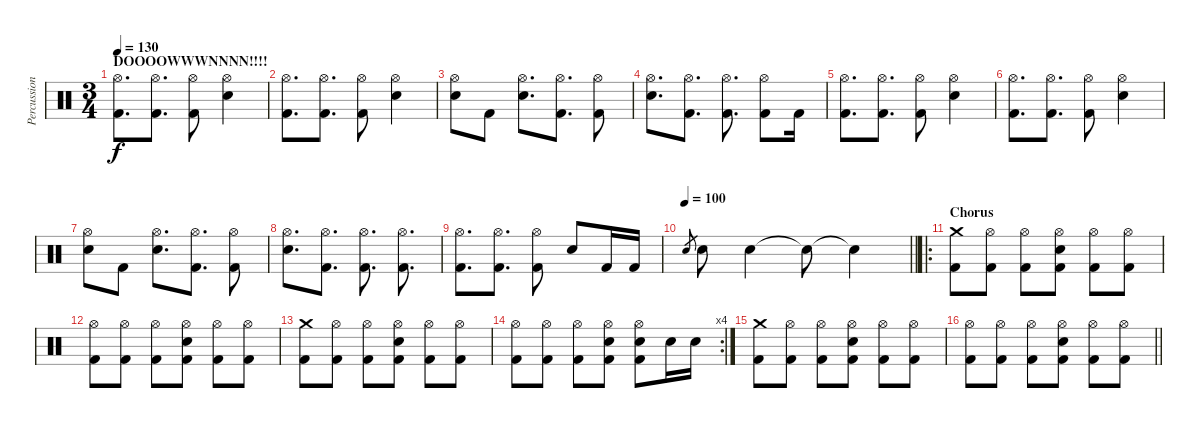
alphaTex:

\track ("Percussion" "Percussion") {instrument percussion}
\staff {score}
\articulation defaults
\ts (3 4)
\section ("" "DOOOOWWWNNNN!!!!")
\tempo 130
\clef neutral
\ks c
("Hi-Hat (open)" "Kick (hit) 2").8{d dy f} ("Hi-Hat (open)" "Kick (hit) 2").8{d} ("Hi-Hat (open)" "Kick (hit) 2").8 ("Hi-Hat (open)" "Snare (hit) 2").4 |
("Hi-Hat (open)" "Kick (hit) 2").8{d} ("Hi-Hat (open)" "Kick (hit) 2").8{d} ("Hi-Hat (open)" "Kick (hit) 2").8 ("Hi-Hat (open)" "Snare (hit) 2").4 |
("Hi-Hat (open)" "Snare (hit) 2").8 "Kick (hit) 2".8 ("Hi-Hat (open)" "Snare (hit) 2").8{d} ("Hi-Hat (open)" "Kick (hit) 2").8{d} ("Hi-Hat (open)" "Kick (hit) 2").8 |
("Hi-Hat (open)" "Snare (hit) 2").8{d} ("Hi-Hat (open)" "Kick (hit) 2").8{d} ("Hi-Hat (open)" "Kick (hit) 2").8{d} ("Hi-Hat (open)" "Kick (hit) 2").8 "Kick (hit) 2".16 |
("Hi-Hat (open)" "Kick (hit) 2").8{d} ("Hi-Hat (open)" "Kick (hit) 2").8{d} ("Hi-Hat (open)" "Kick (hit) 2").8 ("Hi-Hat (open)" "Snare (hit) 2").4 |
("Hi-Hat (open)" "Kick (hit) 2").8{d} ("Hi-Hat (open)" "Kick (hit) 2").8{d} ("Hi-Hat (open)" "Kick (hit) 2").8 ("Hi-Hat (open)" "Snare (hit) 2").4 |
("Hi-Hat (open)" "Snare (hit) 2").8 "Kick (hit) 2".8 ("Hi-Hat (open)" "Snare (hit) 2").8{d} ("Hi-Hat (open)" "Kick (hit) 2").8{d} ("Hi-Hat (open)" "Kick (hit) 2").8 |
("Hi-Hat (open)" "Snare (hit) 2").8{d} ("Hi-Hat (open)" "Kick (hit) 2").8{d} ("Hi-Hat (open)" "Kick (hit) 2").8{d} ("Hi-Hat (open)" "Kick (hit) 2").8{d} |
("Hi-Hat (open)" "Kick (hit) 2").8{d} ("Hi-Hat (open)" "Kick (hit) 2").8{d} ("Hi-Hat (open)" "Kick (hit) 2").8 "Snare (hit) 2".8 "Kick (hit) 2".16 "Kick (hit) 2".16 |
\tempo 100
\barLineRight lightlight "Snare (hit) 2".8{gr} "Snare (hit) 2".8 "Snare (hit) 2".4 "Snare (hit)"{t}.8 "Snare (hit)"{t}.4
|
\ro
\section ("" "Chorus")
("Crash medium (hit)" "Kick (hit) 2").8 ("Hi-Hat (open)" "Kick (hit) 2").8 ("Hi-Hat (open)" "Kick (hit) 2").8 ("Hi-Hat (open)" "Snare (hit) 2" "Kick (hit) 2").8 ("Hi-Hat (open)" "Kick (hit) 2").8 ("Hi-Hat (open)" "Kick (hit) 2").8 |
("Hi-Hat (open)" "Kick (hit) 2").8 ("Hi-Hat (open)" "Kick (hit) 2").8 ("Hi-Hat (open)" "Kick (hit) 2").8 ("Hi-Hat (open)" "Snare (hit) 2" "Kick (hit) 2").8 ("Hi-Hat (open)" "Kick (hit) 2").8 ("Hi-Hat (open)" "Kick (hit) 2").8 |
("Crash medium (hit)" "Kick (hit) 2").8 ("Hi-Hat (open)" "Kick (hit) 2").8 ("Hi-Hat (open)" "Kick (hit) 2").8 ("Hi-Hat (open)" "Snare (hit) 2" "Kick (hit) 2").8 ("Hi-Hat (open)" "Kick (hit) 2").8 ("Hi-Hat (open)" "Kick (hit) 2").8 |
\rc 4
("Hi-Hat (open)" "Kick (hit) 2").8 ("Hi-Hat (open)" "Kick (hit) 2").8 ("Hi-Hat (open)" "Kick (hit) 2").8 ("Hi-Hat (open)" "Snare (hit) 2" "Kick (hit) 2").8 ("Hi-Hat (open)" "Snare (hit) 2" "Kick (hit) 2").8 "Snare (hit) 2".16 "Snare (hit) 2".16 |
("Crash medium (hit)" "Kick (hit) 2").8 ("Hi-Hat (open)" "Kick (hit) 2").8 ("Hi-Hat (open)" "Kick (hit) 2").8 ("Hi-Hat (open)" "Snare (hit) 2" "Kick (hit) 2").8 ("Hi-Hat (open)" "Kick (hit) 2").8 ("Hi-Hat (open)" "Kick (hit) 2").8 |
\barLineRight lightlight
("Hi-Hat (open)" "Kick (hit) 2").8 ("Hi-Hat (open)" "Kick (hit) 2").8 ("Hi-Hat (open)" "Kick (hit) 2").8 ("Hi-Hat (open)" "Snare (hit) 2" "Kick (hit) 2").8 ("Hi-Hat (open)" "Kick (hit) 2").8 ("Hi-Hat (open)" "Kick (hit) 2").8
